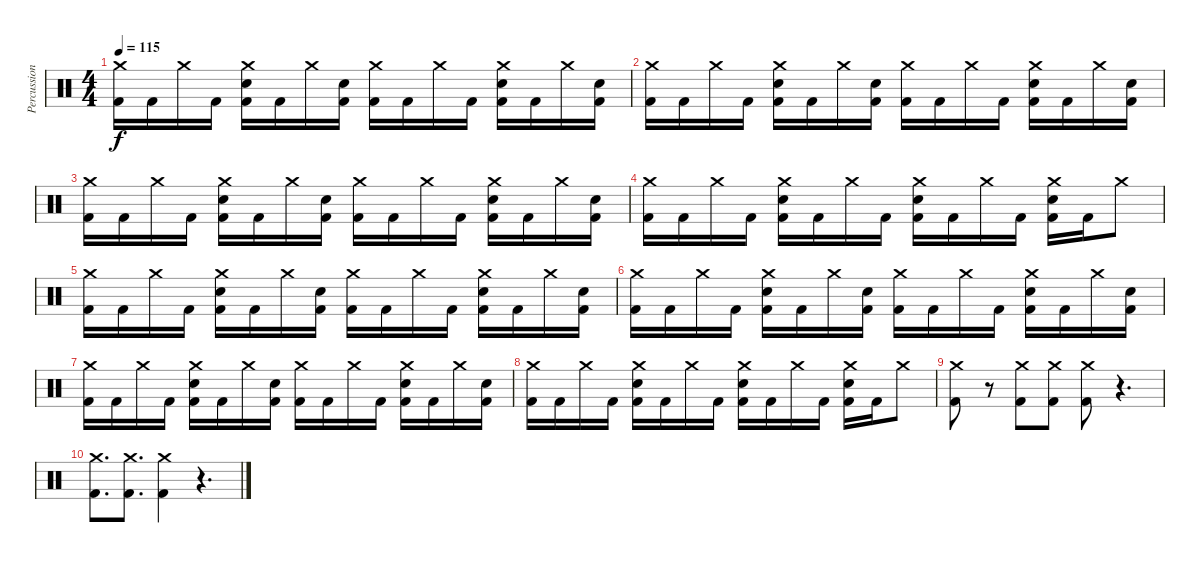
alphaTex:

\track ("Percussion" "Percussion") {instrument percussion}
\staff {score}
\articulation defaults
\ts (4 4)
\tempo 115
\clef neutral
\ks c
("Kick (hit) 2" "Crash medium (hit)").16{dy f} "Kick (hit) 2".16 "Crash medium (hit)".16 "Kick (hit) 2".16 ("Snare (hit) 2" "Kick (hit) 2" "Crash medium (hit)").16 "Kick (hit) 2".16 "Crash medium (hit)".16 ("Snare (hit) 2" "Kick (hit) 2").16 ("Kick (hit) 2" "Crash medium (hit)").16 "Kick (hit) 2".16 "Crash medium (hit)".16 "Kick (hit) 2".16 ("Snare (hit) 2" "Kick (hit) 2" "Crash medium (hit)").16 "Kick (hit) 2".16 "Crash medium (hit)".16 ("Snare (hit) 2" "Kick (hit) 2").16 |
("Kick (hit) 2" "Crash medium (hit)").16 "Kick (hit) 2".16 "Crash medium (hit)".16 "Kick (hit) 2".16 ("Snare (hit) 2" "Kick (hit) 2" "Crash medium (hit)").16 "Kick (hit) 2".16 "Crash medium (hit)".16 ("Snare (hit) 2" "Kick (hit) 2").16 ("Kick (hit) 2" "Crash medium (hit)").16 "Kick (hit) 2".16 "Crash medium (hit)".16 "Kick (hit) 2".16 ("Snare (hit) 2" "Kick (hit) 2" "Crash medium (hit)").16 "Kick (hit) 2".16 "Crash medium (hit)".16 ("Snare (hit) 2" "Kick (hit) 2").16 |
("Kick (hit) 2" "Crash medium (hit)").16 "Kick (hit) 2".16 "Crash medium (hit)".16 "Kick (hit) 2".16 ("Snare (hit) 2" "Kick (hit) 2" "Crash medium (hit)").16 "Kick (hit) 2".16 "Crash medium (hit)".16 ("Snare (hit) 2" "Kick (hit) 2").16 ("Kick (hit) 2" "Crash medium (hit)").16 "Kick (hit) 2".16 "Crash medium (hit)".16 "Kick (hit) 2".16 ("Snare (hit) 2" "Kick (hit) 2" "Crash medium (hit)").16 "Kick (hit) 2".16 "Crash medium (hit)".16 ("Snare (hit) 2" "Kick (hit) 2").16 |
("Kick (hit) 2" "Crash medium (hit)").16 "Kick (hit) 2".16 "Crash medium (hit)".16 "Kick (hit) 2".16 ("Snare (hit) 2" "Kick (hit) 2" "Crash medium (hit)").16 "Kick (hit) 2".16 "Crash medium (hit)".16 "Kick (hit) 2".16 ("Snare (hit) 2" "Kick (hit) 2" "Crash medium (hit)").16 "Kick (hit) 2".16 "Crash medium (hit)".16 "Kick (hit) 2".16 ("Snare (hit) 2" "Kick (hit) 2" "Crash medium (hit)").16 "Kick (hit) 2".16 "Crash medium (hit)".8 |
("Kick (hit) 2" "Crash medium (hit)").16 "Kick (hit) 2".16 "Crash medium (hit)".16 "Kick (hit) 2".16 ("Snare (hit) 2" "Kick (hit) 2" "Crash medium (hit)").16 "Kick (hit) 2".16 "Crash medium (hit)".16 ("Snare (hit) 2" "Kick (hit) 2").16 ("Kick (hit) 2" "Crash medium (hit)").16 "Kick (hit) 2".16 "Crash medium (hit)".16 "Kick (hit) 2".16 ("Snare (hit) 2" "Kick (hit) 2" "Crash medium (hit)").16 "Kick (hit) 2".16 "Crash medium (hit)".16 ("Snare (hit) 2" "Kick (hit) 2").16 |
("Kick (hit) 2" "Crash medium (hit)").16 "Kick (hit) 2".16 "Crash medium (hit)".16 "Kick (hit) 2".16 ("Snare (hit) 2" "Kick (hit) 2" "Crash medium (hit)").16 "Kick (hit) 2".16 "Crash medium (hit)".16 ("Snare (hit) 2" "Kick (hit) 2").16 ("Kick (hit) 2" "Crash medium (hit)").16 "Kick (hit) 2".16 "Crash medium (hit)".16 "Kick (hit) 2".16 ("Snare (hit) 2" "Kick (hit) 2" "Crash medium (hit)").16 "Kick (hit) 2".16 "Crash medium (hit)".16 ("Snare (hit) 2" "Kick (hit) 2").16 |
("Kick (hit) 2" "Crash medium (hit)").16 "Kick (hit) 2".16 "Crash medium (hit)".16 "Kick (hit) 2".16 ("Snare (hit) 2" "Kick (hit) 2" "Crash medium (hit)").16 "Kick (hit) 2".16 "Crash medium (hit)".16 ("Snare (hit) 2" "Kick (hit) 2").16 ("Kick (hit) 2" "Crash medium (hit)").16 "Kick (hit) 2".16 "Crash medium (hit)".16 "Kick (hit) 2".16 ("Snare (hit) 2" "Kick (hit) 2" "Crash medium (hit)").16 "Kick (hit) 2".16 "Crash medium (hit)".16 ("Snare (hit) 2" "Kick (hit) 2").16 |
("Kick (hit) 2" "Crash medium (hit)").16 "Kick (hit) 2".16 "Crash medium (hit)".16 "Kick (hit) 2".16 ("Snare (hit) 2" "Kick (hit) 2" "Crash medium (hit)").16 "Kick (hit) 2".16 "Crash medium (hit)".16 "Kick (hit) 2".16 ("Snare (hit) 2" "Kick (hit) 2" "Crash medium (hit)").16 "Kick (hit) 2".16 "Crash medium (hit)".16 "Kick (hit) 2".16 ("Snare (hit) 2" "Kick (hit) 2" "Crash medium (hit)").16 "Kick (hit) 2".16 "Crash medium (hit)".8 |
("Crash medium (hit)" "Kick (hit) 2").8 r.8 ("Crash medium (hit)" "Kick (hit) 2").8 ("Crash medium (hit)" "Kick (hit) 2").8 ("Crash medium (hit)" "Kick (hit) 2").8 r.4{d} |
("Crash medium (hit)" "Kick (hit) 2").8{d} ("Crash medium (hit)" "Kick (hit) 2").8{d} ("Crash medium (hit)" "Kick (hit) 2").4 r.4{d}
